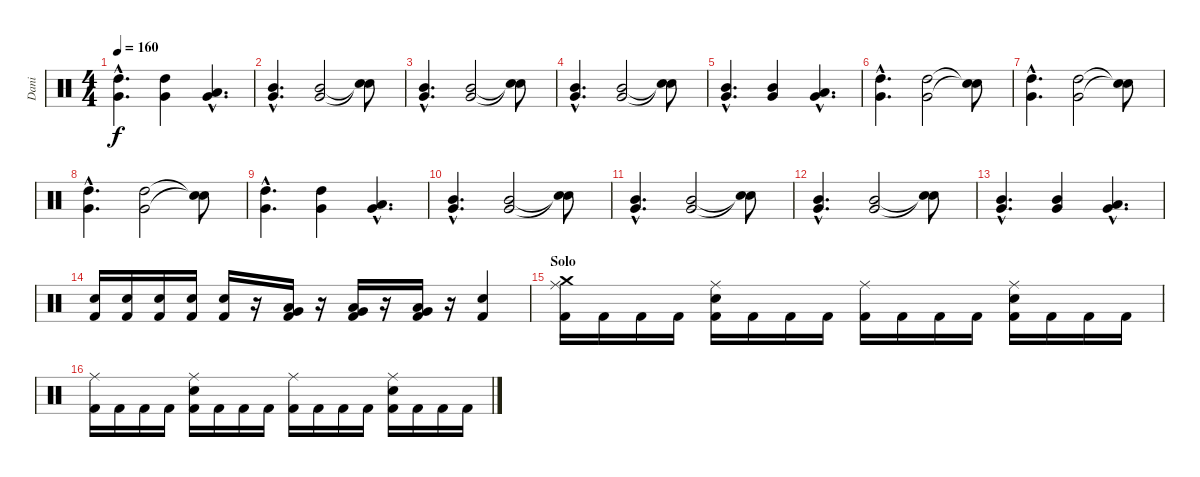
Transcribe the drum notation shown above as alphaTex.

\track ("Dani" "Dani") {instrument percussion}
\staff {score}
\articulation defaults
\ts (4 4)
\tempo 160
\clef neutral
\ks c
("High Tom (hit)"{hac} "Very Low Tom (hit)"{hac}).4{d dy f} ("High Tom (hit)" "Very Low Tom (hit)").4 ("Low Tom (hit)"{hac} "Very Low Tom (hit)"{hac}).4{d} |
("Mid Tom (hit)"{hac} "Very Low Tom (hit)"{hac}).4{d} ("Mid Tom (hit)" "Very Low Tom (hit)").2 ("Snare (hit)"{t} "Snare (hit)"{t}).8 |
("Mid Tom (hit)"{hac} "Very Low Tom (hit)"{hac}).4{d} ("Mid Tom (hit)" "Very Low Tom (hit)").2 ("Snare (hit)"{t} "Snare (hit)"{t}).8 |
("Mid Tom (hit)"{hac} "Very Low Tom (hit)"{hac}).4{d} ("Mid Tom (hit)" "Very Low Tom (hit)").2 ("Snare (hit)"{t} "Snare (hit)"{t}).8 |
("Mid Tom (hit)"{hac} "Very Low Tom (hit)"{hac}).4{d} ("Mid Tom (hit)" "Very Low Tom (hit)").4 ("Low Tom (hit)"{hac} "Very Low Tom (hit)"{hac}).4{d} |
("High Tom (hit)"{hac} "Very Low Tom (hit)"{hac}).4{d} ("High Tom (hit)" "Very Low Tom (hit)").2 ("Snare (hit)"{t} "Snare (hit)"{t}).8 |
("High Tom (hit)"{hac} "Very Low Tom (hit)"{hac}).4{d} ("High Tom (hit)" "Very Low Tom (hit)").2 ("Snare (hit)"{t} "Snare (hit)"{t}).8 |
("High Tom (hit)"{hac} "Very Low Tom (hit)"{hac}).4{d} ("High Tom (hit)" "Very Low Tom (hit)").2 ("Snare (hit)"{t} "Snare (hit)"{t}).8 |
("High Tom (hit)"{hac} "Very Low Tom (hit)"{hac}).4{d} ("High Tom (hit)" "Very Low Tom (hit)").4 ("Low Tom (hit)"{hac} "Very Low Tom (hit)"{hac}).4{d} |
("Mid Tom (hit)"{hac} "Very Low Tom (hit)"{hac}).4{d} ("Mid Tom (hit)" "Very Low Tom (hit)").2 ("Snare (hit)"{t} "Snare (hit)"{t}).8 |
("Mid Tom (hit)"{hac} "Very Low Tom (hit)"{hac}).4{d} ("Mid Tom (hit)" "Very Low Tom (hit)").2 ("Snare (hit)"{t} "Snare (hit)"{t}).8 |
("Mid Tom (hit)"{hac} "Very Low Tom (hit)"{hac}).4{d} ("Mid Tom (hit)" "Very Low Tom (hit)").2 ("Snare (hit)"{t} "Snare (hit)"{t}).8 |
("Mid Tom (hit)"{hac} "Very Low Tom (hit)"{hac}).4{d} ("Mid Tom (hit)" "Very Low Tom (hit)").4 ("Low Tom (hit)"{hac} "Very Low Tom (hit)"{hac}).4{d} |
("Electric Snare (hit)" "Kick (hit) 2").16 ("Electric Snare (hit)" "Kick (hit) 2").16 ("Electric Snare (hit)" "Kick (hit) 2").16 ("Electric Snare (hit)" "Kick (hit) 2").16 ("Electric Snare (hit)" "Kick (hit) 2").16 r.16 ("Low Floor Tom (hit)" "Very Low Tom (hit)" "Kick (hit) 2").16 r.16 ("Low Floor Tom (hit)" "Very Low Tom (hit)" "Kick (hit) 2").16 r.16 ("Low Floor Tom (hit)" "Very Low Tom (hit)" "Kick (hit) 2").16 r.16 ("Electric Snare (hit)" "Kick (hit) 2").4 |
\section ("" "Solo")
("Crash medium (hit)" "Ride (middle)" "Kick (hit) 2").16 "Kick (hit) 2".16 "Kick (hit) 2".16 "Kick (hit) 2".16 ("Ride (middle)" "Electric Snare (hit)" "Kick (hit) 2").16 "Kick (hit) 2".16 "Kick (hit) 2".16 "Kick (hit) 2".16 ("Ride (middle)" "Kick (hit) 2").16 "Kick (hit) 2".16 "Kick (hit) 2".16 "Kick (hit) 2".16 ("Ride (middle)" "Electric Snare (hit)" "Kick (hit) 2").16 "Kick (hit) 2".16 "Kick (hit) 2".16 "Kick (hit) 2".16 |
("Ride (middle)" "Kick (hit) 2").16 "Kick (hit) 2".16 "Kick (hit) 2".16 "Kick (hit) 2".16 ("Ride (middle)" "Electric Snare (hit)" "Kick (hit) 2").16 "Kick (hit) 2".16 "Kick (hit) 2".16 "Kick (hit) 2".16 ("Ride (middle)" "Kick (hit) 2").16 "Kick (hit) 2".16 "Kick (hit) 2".16 "Kick (hit) 2".16 ("Ride (middle)" "Electric Snare (hit)" "Kick (hit) 2").16 "Kick (hit) 2".16 "Kick (hit) 2".16 "Kick (hit) 2".16
